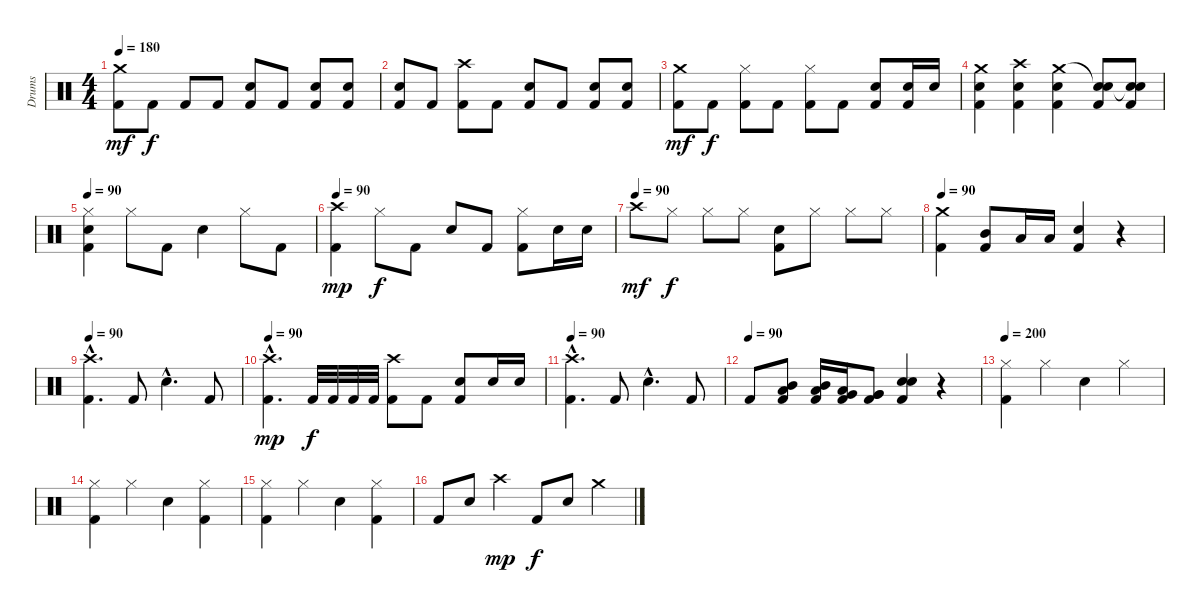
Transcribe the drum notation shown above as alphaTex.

\track ("Drums" "Drums") {instrument percussion}
\staff {score}
\articulation defaults
\ts (4 4)
\tempo 180
\clef neutral
\ks c
("Crash medium (hit)" "Kick (hit) 2").8{dy mf} "Kick (hit) 2".8{dy f} "Kick (hit) 2".8 "Kick (hit) 2".8 ("Electric Snare (hit)" "Kick (hit) 2").8 "Kick (hit) 2".8 ("Electric Snare (hit)" "Kick (hit) 2").8 ("Electric Snare (hit)" "Kick (hit) 2").8 |
("Electric Snare (hit)" "Kick (hit) 2").8 "Kick (hit) 2".8 ("Crash high (hit)" "Kick (hit) 2").8 "Kick (hit) 2".8 ("Electric Snare (hit)" "Kick (hit) 2").8 "Kick (hit) 2".8 ("Electric Snare (hit)" "Kick (hit) 2").8 ("Electric Snare (hit)" "Kick (hit) 2").8 |
("Crash medium (hit)" "Kick (hit) 2").8{dy mf} "Kick (hit) 2".8{dy f} ("Hi-Hat (closed)" "Kick (hit) 2").8 "Kick (hit) 2".8 ("Hi-Hat (closed)" "Kick (hit) 2").8 "Kick (hit) 2".8 ("Electric Snare (hit)" "Kick (hit) 2").8 ("Electric Snare (hit)" "Kick (hit) 2").16 "Electric Snare (hit)".16 |
("Crash medium (hit)" "Electric Snare (hit)" "Kick (hit) 2").4 ("Crash high (hit)" "Electric Snare (hit)" "Kick (hit) 2").4 ("Crash medium (hit)" "Electric Snare (hit)" "Kick (hit) 2").4 ("Snare (hit)"{t} "Electric Snare (hit)" "Kick (hit) 2").8 ("Snare (hit)"{t} "Electric Snare (hit)" "Kick (hit) 2").8 |
\tempo 90
("Electric Snare (hit)" "Hi-Hat (closed)" "Kick (hit) 2").4 "Hi-Hat (closed)".8 "Kick (hit) 2".8 "Electric Snare (hit)".4 "Hi-Hat (closed)".8 "Kick (hit) 2".8 |
\tempo 90
("Crash high (hit)" "Kick (hit) 2").4{dy mp} "Hi-Hat (closed)".8{dy f} "Kick (hit) 2".8 "Electric Snare (hit)".8 "Kick (hit) 2".8 ("Hi-Hat (closed)" "Kick (hit) 2").8 "Electric Snare (hit)".16 "Electric Snare (hit)".16 |
\tempo (90)
"Crash high (hit)".8{dy mf} "Hi-Hat (closed)".8{dy f} "Hi-Hat (closed)".8 "Hi-Hat (closed)".8 ("Electric Snare (hit)" "Kick (hit) 2").8 "Hi-Hat (closed)".8 "Hi-Hat (closed)".8 "Hi-Hat (closed)".8 |
\tempo 90
("Crash medium (hit)" "Kick (hit) 2").4 ("Mid Tom (hit)" "Kick (hit) 2").8 "Low Tom (hit)".16 "Low Tom (hit)".16 ("Electric Snare (hit)" "Kick (hit) 2").4 r.4 |
\tempo 90
("Crash high (hit)"{hac} "Kick (hit) 2"{hac}).4{d} "Kick (hit) 2".8 "Electric Snare (hit)"{hac}.4{d} "Kick (hit) 2".8 |
\tempo 90
("Crash high (hit)"{hac} "Kick (hit) 2"{hac}).4{d dy mp} "Kick (hit) 2".32{dy f} "Kick (hit) 2".32 "Kick (hit) 2".32 "Kick (hit) 2".32 ("Crash high (hit)" "Kick (hit) 2").8 "Kick (hit) 2".8 ("Electric Snare (hit)" "Kick (hit) 2").8 "Electric Snare (hit)".16 "Electric Snare (hit)".16 |
\tempo 90
("Crash high (hit)"{hac} "Kick (hit) 2"{hac}).4{d} "Kick (hit) 2".8 "Electric Snare (hit)"{hac}.4{d} "Kick (hit) 2".8 |
\tempo (90)
"Kick (hit) 2".8 ("Mid Tom (hit)" "Low Tom (hit)" "Kick (hit) 2").8 ("Mid Tom (hit)" "Low Tom (hit)" "Kick (hit) 2").16 ("Low Tom (hit)" "Very Low Tom (hit)" "Kick (hit) 2").16 ("Very Low Tom (hit)" "Very Low Tom (hit)" "Kick (hit) 2").8 ("Electric Snare (hit)" "Electric Snare (hit)" "Kick (hit) 2").4 r.4 |
\tempo 200
("Hi-Hat (closed)" "Kick (hit) 2").4 "Hi-Hat (closed)".4 "Electric Snare (hit)".4 "Hi-Hat (closed)".4 |
("Hi-Hat (closed)" "Kick (hit) 2").4 "Hi-Hat (closed)".4 "Electric Snare (hit)".4 ("Hi-Hat (closed)" "Kick (hit) 2").4 |
("Hi-Hat (closed)" "Kick (hit) 2").4 "Hi-Hat (closed)".4 "Electric Snare (hit)".4 ("Hi-Hat (closed)" "Kick (hit) 2").4 |
"Kick (hit) 2".8 "Electric Snare (hit)".8 "Crash high (hit)".4{dy mp} "Kick (hit) 2".8{dy f} "Electric Snare (hit)".8 "Crash medium (hit)".4
